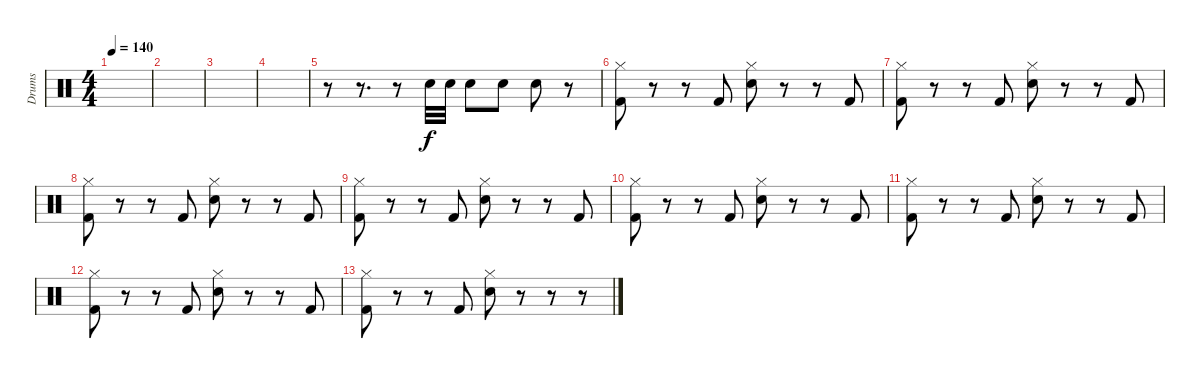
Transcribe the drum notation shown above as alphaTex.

\track ("Drums" "Drums") {instrument percussion}
\staff {score}
\articulation defaults
\ts (4 4)
\tempo 140
\clef neutral
\ks c
|
|
|
|
r.8 r.8{d} r.8 "Electric Snare (hit)".32 "Electric Snare (hit)".32 "Electric Snare (hit)".8 "Electric Snare (hit)".8 "Electric Snare (hit)".8 r.8 |
("Hi-Hat (closed)" "Kick (hit) 2").8 r.8 r.8 "Kick (hit) 2".8 ("Hi-Hat (closed)" "Snare (hit) 2").8 r.8 r.8 "Kick (hit) 2".8 |
("Hi-Hat (closed)" "Kick (hit) 2").8 r.8 r.8 "Kick (hit) 2".8 ("Hi-Hat (closed)" "Snare (hit) 2").8 r.8 r.8 "Kick (hit) 2".8 |
("Hi-Hat (closed)" "Kick (hit) 2").8 r.8 r.8 "Kick (hit) 2".8 ("Hi-Hat (closed)" "Snare (hit) 2").8 r.8 r.8 "Kick (hit) 2".8 |
("Hi-Hat (closed)" "Kick (hit) 2").8 r.8 r.8 "Kick (hit) 2".8 ("Hi-Hat (closed)" "Snare (hit) 2").8 r.8 r.8 "Kick (hit) 2".8 |
("Hi-Hat (closed)" "Kick (hit) 2").8 r.8 r.8 "Kick (hit) 2".8 ("Hi-Hat (closed)" "Snare (hit) 2").8 r.8 r.8 "Kick (hit) 2".8 |
("Hi-Hat (closed)" "Kick (hit) 2").8 r.8 r.8 "Kick (hit) 2".8 ("Hi-Hat (closed)" "Snare (hit) 2").8 r.8 r.8 "Kick (hit) 2".8 |
("Hi-Hat (closed)" "Kick (hit) 2").8 r.8 r.8 "Kick (hit) 2".8 ("Hi-Hat (closed)" "Snare (hit) 2").8 r.8 r.8 "Kick (hit) 2".8 |
("Hi-Hat (closed)" "Kick (hit) 2").8 r.8 r.8 "Kick (hit) 2".8 ("Hi-Hat (closed)" "Snare (hit) 2").8 r.8 r.8 r.8
